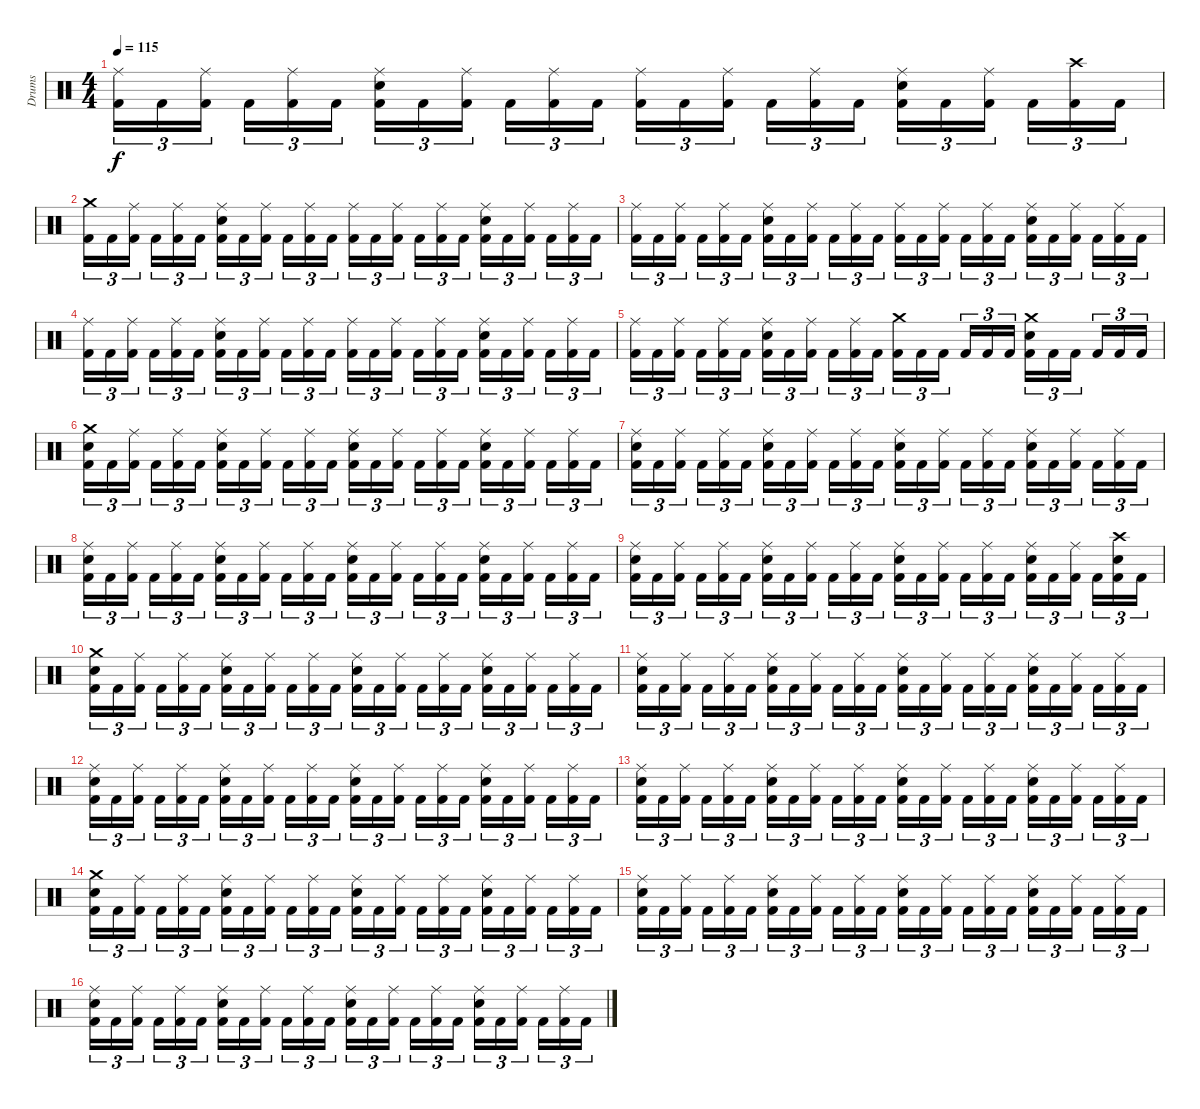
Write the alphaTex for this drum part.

\track ("Drums" "Drums") {instrument percussion}
\staff {score}
\articulation defaults
\ts (4 4)
\tempo 115
\clef neutral
\ks c
("Kick (hit) 2" "Ride (middle)").16{tu (3 2) dy f} "Kick (hit) 2".16{tu (3 2)} ("Kick (hit) 2" "Ride (middle)").16{tu (3 2)} "Kick (hit) 2".16{tu (3 2)} ("Kick (hit) 2" "Ride (middle)").16{tu (3 2)} "Kick (hit) 2".16{tu (3 2)} ("Kick (hit) 2" "Electric Snare (hit)" "Ride (middle)").16{tu (3 2)} "Kick (hit) 2".16{tu (3 2)} ("Kick (hit) 2" "Ride (middle)").16{tu (3 2)} "Kick (hit) 2".16{tu (3 2)} ("Kick (hit) 2" "Ride (middle)").16{tu (3 2)} "Kick (hit) 2".16{tu (3 2)} ("Kick (hit) 2" "Ride (middle)").16{tu (3 2)} "Kick (hit) 2".16{tu (3 2)} ("Kick (hit) 2" "Ride (middle)").16{tu (3 2)} "Kick (hit) 2".16{tu (3 2)} ("Kick (hit) 2" "Ride (middle)").16{tu (3 2)} "Kick (hit) 2".16{tu (3 2)} ("Kick (hit) 2" "Electric Snare (hit)" "Ride (middle)").16{tu (3 2)} "Kick (hit) 2".16{tu (3 2)} ("Kick (hit) 2" "Ride (middle)").16{tu (3 2)} "Kick (hit) 2".16{tu (3 2)} ("Kick (hit) 2" "Crash high (hit)").16{tu (3 2)} "Kick (hit) 2".16{tu (3 2)} |
("Kick (hit) 2" "Crash medium (hit)").16{tu (3 2) volume 14} "Kick (hit) 2".16{tu (3 2)} ("Kick (hit) 2" "Ride (middle)").16{tu (3 2)} "Kick (hit) 2".16{tu (3 2)} ("Kick (hit) 2" "Ride (middle)").16{tu (3 2)} "Kick (hit) 2".16{tu (3 2)} ("Kick (hit) 2" "Electric Snare (hit)" "Ride (middle)").16{tu (3 2)} "Kick (hit) 2".16{tu (3 2)} ("Kick (hit) 2" "Ride (middle)").16{tu (3 2)} "Kick (hit) 2".16{tu (3 2)} ("Kick (hit) 2" "Ride (middle)").16{tu (3 2)} "Kick (hit) 2".16{tu (3 2)} ("Kick (hit) 2" "Ride (middle)").16{tu (3 2)} "Kick (hit) 2".16{tu (3 2)} ("Kick (hit) 2" "Ride (middle)").16{tu (3 2)} "Kick (hit) 2".16{tu (3 2)} ("Kick (hit) 2" "Ride (middle)").16{tu (3 2)} "Kick (hit) 2".16{tu (3 2)} ("Kick (hit) 2" "Electric Snare (hit)" "Ride (middle)").16{tu (3 2)} "Kick (hit) 2".16{tu (3 2)} ("Kick (hit) 2" "Ride (middle)").16{tu (3 2)} "Kick (hit) 2".16{tu (3 2)} ("Kick (hit) 2" "Ride (middle)").16{tu (3 2)} "Kick (hit) 2".16{tu (3 2)} |
("Kick (hit) 2" "Ride (middle)").16{tu (3 2)} "Kick (hit) 2".16{tu (3 2)} ("Kick (hit) 2" "Ride (middle)").16{tu (3 2)} "Kick (hit) 2".16{tu (3 2)} ("Kick (hit) 2" "Ride (middle)").16{tu (3 2)} "Kick (hit) 2".16{tu (3 2)} ("Kick (hit) 2" "Electric Snare (hit)" "Ride (middle)").16{tu (3 2)} "Kick (hit) 2".16{tu (3 2)} ("Kick (hit) 2" "Ride (middle)").16{tu (3 2)} "Kick (hit) 2".16{tu (3 2)} ("Kick (hit) 2" "Ride (middle)").16{tu (3 2)} "Kick (hit) 2".16{tu (3 2)} ("Kick (hit) 2" "Ride (middle)").16{tu (3 2)} "Kick (hit) 2".16{tu (3 2)} ("Kick (hit) 2" "Ride (middle)").16{tu (3 2)} "Kick (hit) 2".16{tu (3 2)} ("Kick (hit) 2" "Ride (middle)").16{tu (3 2)} "Kick (hit) 2".16{tu (3 2)} ("Kick (hit) 2" "Electric Snare (hit)" "Ride (middle)").16{tu (3 2)} "Kick (hit) 2".16{tu (3 2)} ("Kick (hit) 2" "Ride (middle)").16{tu (3 2)} "Kick (hit) 2".16{tu (3 2)} ("Kick (hit) 2" "Ride (middle)").16{tu (3 2)} "Kick (hit) 2".16{tu (3 2)} |
("Kick (hit) 2" "Ride (middle)").16{tu (3 2) volume 12} "Kick (hit) 2".16{tu (3 2)} ("Kick (hit) 2" "Ride (middle)").16{tu (3 2)} "Kick (hit) 2".16{tu (3 2)} ("Kick (hit) 2" "Ride (middle)").16{tu (3 2)} "Kick (hit) 2".16{tu (3 2)} ("Kick (hit) 2" "Electric Snare (hit)" "Ride (middle)").16{tu (3 2)} "Kick (hit) 2".16{tu (3 2)} ("Kick (hit) 2" "Ride (middle)").16{tu (3 2)} "Kick (hit) 2".16{tu (3 2)} ("Kick (hit) 2" "Ride (middle)").16{tu (3 2)} "Kick (hit) 2".16{tu (3 2)} ("Kick (hit) 2" "Ride (middle)").16{tu (3 2)} "Kick (hit) 2".16{tu (3 2)} ("Kick (hit) 2" "Ride (middle)").16{tu (3 2)} "Kick (hit) 2".16{tu (3 2)} ("Kick (hit) 2" "Ride (middle)").16{tu (3 2)} "Kick (hit) 2".16{tu (3 2)} ("Kick (hit) 2" "Electric Snare (hit)" "Ride (middle)").16{tu (3 2)} "Kick (hit) 2".16{tu (3 2)} ("Kick (hit) 2" "Ride (middle)").16{tu (3 2)} "Kick (hit) 2".16{tu (3 2)} ("Kick (hit) 2" "Ride (middle)").16{tu (3 2)} "Kick (hit) 2".16{tu (3 2)} |
("Kick (hit) 2" "Ride (middle)").16{tu (3 2)} "Kick (hit) 2".16{tu (3 2)} ("Kick (hit) 2" "Ride (middle)").16{tu (3 2)} "Kick (hit) 2".16{tu (3 2)} ("Kick (hit) 2" "Ride (middle)").16{tu (3 2)} "Kick (hit) 2".16{tu (3 2)} ("Kick (hit) 2" "Electric Snare (hit)" "Ride (middle)").16{tu (3 2)} "Kick (hit) 2".16{tu (3 2)} ("Kick (hit) 2" "Ride (middle)").16{tu (3 2)} "Kick (hit) 2".16{tu (3 2)} ("Kick (hit) 2" "Ride (middle)").16{tu (3 2)} "Kick (hit) 2".16{tu (3 2)} ("Kick (hit) 2" "Crash medium (hit)").16{tu (3 2)} "Kick (hit) 2".16{tu (3 2)} "Kick (hit) 2".16{tu (3 2)} "Kick (hit) 2".16{tu (3 2)} "Kick (hit) 2".16{tu (3 2)} "Kick (hit) 2".16{tu (3 2)} ("Kick (hit) 2" "Electric Snare (hit)" "Crash medium (hit)").16{tu (3 2)} "Kick (hit) 2".16{tu (3 2)} "Kick (hit) 2".16{tu (3 2)} "Kick (hit) 2".16{tu (3 2)} "Kick (hit) 2".16{tu (3 2)} "Kick (hit) 2".16{tu (3 2)} |
("Kick (hit) 2" "Electric Snare (hit)" "Crash medium (hit)").16{tu (3 2) volume 10} "Kick (hit) 2".16{tu (3 2)} ("Kick (hit) 2" "Ride (middle)").16{tu (3 2)} "Kick (hit) 2".16{tu (3 2)} ("Kick (hit) 2" "Ride (middle)").16{tu (3 2)} "Kick (hit) 2".16{tu (3 2)} ("Kick (hit) 2" "Electric Snare (hit)" "Ride (middle)").16{tu (3 2)} "Kick (hit) 2".16{tu (3 2)} ("Kick (hit) 2" "Ride (middle)").16{tu (3 2)} "Kick (hit) 2".16{tu (3 2)} ("Kick (hit) 2" "Ride (middle)").16{tu (3 2)} "Kick (hit) 2".16{tu (3 2)} ("Kick (hit) 2" "Electric Snare (hit)" "Ride (middle)").16{tu (3 2)} "Kick (hit) 2".16{tu (3 2)} ("Kick (hit) 2" "Ride (middle)").16{tu (3 2)} "Kick (hit) 2".16{tu (3 2)} ("Kick (hit) 2" "Ride (middle)").16{tu (3 2)} "Kick (hit) 2".16{tu (3 2)} ("Kick (hit) 2" "Electric Snare (hit)" "Ride (middle)").16{tu (3 2)} "Kick (hit) 2".16{tu (3 2)} ("Kick (hit) 2" "Ride (middle)").16{tu (3 2)} "Kick (hit) 2".16{tu (3 2)} ("Kick (hit) 2" "Ride (middle)").16{tu (3 2)} "Kick (hit) 2".16{tu (3 2)} |
("Kick (hit) 2" "Electric Snare (hit)" "Ride (middle)").16{tu (3 2)} "Kick (hit) 2".16{tu (3 2)} ("Kick (hit) 2" "Ride (middle)").16{tu (3 2)} "Kick (hit) 2".16{tu (3 2)} ("Kick (hit) 2" "Ride (middle)").16{tu (3 2)} "Kick (hit) 2".16{tu (3 2)} ("Kick (hit) 2" "Electric Snare (hit)" "Ride (middle)").16{tu (3 2)} "Kick (hit) 2".16{tu (3 2)} ("Kick (hit) 2" "Ride (middle)").16{tu (3 2)} "Kick (hit) 2".16{tu (3 2)} ("Kick (hit) 2" "Ride (middle)").16{tu (3 2)} "Kick (hit) 2".16{tu (3 2)} ("Kick (hit) 2" "Electric Snare (hit)" "Ride (middle)").16{tu (3 2)} "Kick (hit) 2".16{tu (3 2)} ("Kick (hit) 2" "Ride (middle)").16{tu (3 2)} "Kick (hit) 2".16{tu (3 2)} ("Kick (hit) 2" "Ride (middle)").16{tu (3 2)} "Kick (hit) 2".16{tu (3 2)} ("Kick (hit) 2" "Electric Snare (hit)" "Ride (middle)").16{tu (3 2)} "Kick (hit) 2".16{tu (3 2)} ("Kick (hit) 2" "Ride (middle)").16{tu (3 2)} "Kick (hit) 2".16{tu (3 2)} ("Kick (hit) 2" "Ride (middle)").16{tu (3 2)} "Kick (hit) 2".16{tu (3 2)} |
("Kick (hit) 2" "Electric Snare (hit)" "Ride (middle)").16{tu (3 2) volume 8} "Kick (hit) 2".16{tu (3 2)} ("Kick (hit) 2" "Ride (middle)").16{tu (3 2)} "Kick (hit) 2".16{tu (3 2)} ("Kick (hit) 2" "Ride (middle)").16{tu (3 2)} "Kick (hit) 2".16{tu (3 2)} ("Kick (hit) 2" "Electric Snare (hit)" "Ride (middle)").16{tu (3 2)} "Kick (hit) 2".16{tu (3 2)} ("Kick (hit) 2" "Ride (middle)").16{tu (3 2)} "Kick (hit) 2".16{tu (3 2)} ("Kick (hit) 2" "Ride (middle)").16{tu (3 2)} "Kick (hit) 2".16{tu (3 2)} ("Kick (hit) 2" "Electric Snare (hit)" "Ride (middle)").16{tu (3 2)} "Kick (hit) 2".16{tu (3 2)} ("Kick (hit) 2" "Ride (middle)").16{tu (3 2)} "Kick (hit) 2".16{tu (3 2)} ("Kick (hit) 2" "Ride (middle)").16{tu (3 2)} "Kick (hit) 2".16{tu (3 2)} ("Kick (hit) 2" "Electric Snare (hit)" "Ride (middle)").16{tu (3 2)} "Kick (hit) 2".16{tu (3 2)} ("Kick (hit) 2" "Ride (middle)").16{tu (3 2)} "Kick (hit) 2".16{tu (3 2)} ("Kick (hit) 2" "Ride (middle)").16{tu (3 2)} "Kick (hit) 2".16{tu (3 2)} |
("Kick (hit) 2" "Electric Snare (hit)" "Ride (middle)").16{tu (3 2)} "Kick (hit) 2".16{tu (3 2)} ("Kick (hit) 2" "Ride (middle)").16{tu (3 2)} "Kick (hit) 2".16{tu (3 2)} ("Kick (hit) 2" "Ride (middle)").16{tu (3 2)} "Kick (hit) 2".16{tu (3 2)} ("Kick (hit) 2" "Electric Snare (hit)" "Ride (middle)").16{tu (3 2)} "Kick (hit) 2".16{tu (3 2)} ("Kick (hit) 2" "Ride (middle)").16{tu (3 2)} "Kick (hit) 2".16{tu (3 2)} ("Kick (hit) 2" "Ride (middle)").16{tu (3 2)} "Kick (hit) 2".16{tu (3 2)} ("Kick (hit) 2" "Electric Snare (hit)" "Ride (middle)").16{tu (3 2)} "Kick (hit) 2".16{tu (3 2)} ("Kick (hit) 2" "Ride (middle)").16{tu (3 2)} "Kick (hit) 2".16{tu (3 2)} ("Kick (hit) 2" "Ride (middle)").16{tu (3 2)} "Kick (hit) 2".16{tu (3 2)} ("Kick (hit) 2" "Electric Snare (hit)" "Ride (middle)").16{tu (3 2)} "Kick (hit) 2".16{tu (3 2)} ("Kick (hit) 2" "Ride (middle)").16{tu (3 2)} "Kick (hit) 2".16{tu (3 2)} ("Kick (hit) 2" "Electric Snare (hit)" "Crash high (hit)").16{tu (3 2)} "Kick (hit) 2".16{tu (3 2)} |
("Kick (hit) 2" "Electric Snare (hit)" "Crash medium (hit)").16{tu (3 2) volume 6} "Kick (hit) 2".16{tu (3 2)} ("Kick (hit) 2" "Ride (middle)").16{tu (3 2)} "Kick (hit) 2".16{tu (3 2)} ("Kick (hit) 2" "Ride (middle)").16{tu (3 2)} "Kick (hit) 2".16{tu (3 2)} ("Kick (hit) 2" "Electric Snare (hit)" "Ride (middle)").16{tu (3 2)} "Kick (hit) 2".16{tu (3 2)} ("Kick (hit) 2" "Ride (middle)").16{tu (3 2)} "Kick (hit) 2".16{tu (3 2)} ("Kick (hit) 2" "Ride (middle)").16{tu (3 2)} "Kick (hit) 2".16{tu (3 2)} ("Kick (hit) 2" "Electric Snare (hit)" "Ride (middle)").16{tu (3 2)} "Kick (hit) 2".16{tu (3 2)} ("Kick (hit) 2" "Ride (middle)").16{tu (3 2)} "Kick (hit) 2".16{tu (3 2)} ("Kick (hit) 2" "Ride (middle)").16{tu (3 2)} "Kick (hit) 2".16{tu (3 2)} ("Kick (hit) 2" "Electric Snare (hit)" "Ride (middle)").16{tu (3 2)} "Kick (hit) 2".16{tu (3 2)} ("Kick (hit) 2" "Ride (middle)").16{tu (3 2)} "Kick (hit) 2".16{tu (3 2)} ("Kick (hit) 2" "Ride (middle)").16{tu (3 2)} "Kick (hit) 2".16{tu (3 2)} |
("Kick (hit) 2" "Electric Snare (hit)" "Ride (middle)").16{tu (3 2)} "Kick (hit) 2".16{tu (3 2)} ("Kick (hit) 2" "Ride (middle)").16{tu (3 2)} "Kick (hit) 2".16{tu (3 2)} ("Kick (hit) 2" "Ride (middle)").16{tu (3 2)} "Kick (hit) 2".16{tu (3 2)} ("Kick (hit) 2" "Electric Snare (hit)" "Ride (middle)").16{tu (3 2)} "Kick (hit) 2".16{tu (3 2)} ("Kick (hit) 2" "Ride (middle)").16{tu (3 2)} "Kick (hit) 2".16{tu (3 2)} ("Kick (hit) 2" "Ride (middle)").16{tu (3 2)} "Kick (hit) 2".16{tu (3 2)} ("Kick (hit) 2" "Electric Snare (hit)" "Ride (middle)").16{tu (3 2)} "Kick (hit) 2".16{tu (3 2)} ("Kick (hit) 2" "Ride (middle)").16{tu (3 2)} "Kick (hit) 2".16{tu (3 2)} ("Kick (hit) 2" "Ride (middle)").16{tu (3 2)} "Kick (hit) 2".16{tu (3 2)} ("Kick (hit) 2" "Electric Snare (hit)" "Ride (middle)").16{tu (3 2)} "Kick (hit) 2".16{tu (3 2)} ("Kick (hit) 2" "Ride (middle)").16{tu (3 2)} "Kick (hit) 2".16{tu (3 2)} ("Kick (hit) 2" "Ride (middle)").16{tu (3 2)} "Kick (hit) 2".16{tu (3 2)} |
("Kick (hit) 2" "Electric Snare (hit)" "Ride (middle)").16{tu (3 2) volume 4} "Kick (hit) 2".16{tu (3 2)} ("Kick (hit) 2" "Ride (middle)").16{tu (3 2)} "Kick (hit) 2".16{tu (3 2)} ("Kick (hit) 2" "Ride (middle)").16{tu (3 2)} "Kick (hit) 2".16{tu (3 2)} ("Kick (hit) 2" "Electric Snare (hit)" "Ride (middle)").16{tu (3 2)} "Kick (hit) 2".16{tu (3 2)} ("Kick (hit) 2" "Ride (middle)").16{tu (3 2)} "Kick (hit) 2".16{tu (3 2)} ("Kick (hit) 2" "Ride (middle)").16{tu (3 2)} "Kick (hit) 2".16{tu (3 2)} ("Kick (hit) 2" "Electric Snare (hit)" "Ride (middle)").16{tu (3 2)} "Kick (hit) 2".16{tu (3 2)} ("Kick (hit) 2" "Ride (middle)").16{tu (3 2)} "Kick (hit) 2".16{tu (3 2)} ("Kick (hit) 2" "Ride (middle)").16{tu (3 2)} "Kick (hit) 2".16{tu (3 2)} ("Kick (hit) 2" "Electric Snare (hit)" "Ride (middle)").16{tu (3 2)} "Kick (hit) 2".16{tu (3 2)} ("Kick (hit) 2" "Ride (middle)").16{tu (3 2)} "Kick (hit) 2".16{tu (3 2)} ("Kick (hit) 2" "Ride (middle)").16{tu (3 2)} "Kick (hit) 2".16{tu (3 2)} |
("Kick (hit) 2" "Electric Snare (hit)" "Ride (middle)").16{tu (3 2)} "Kick (hit) 2".16{tu (3 2)} ("Kick (hit) 2" "Ride (middle)").16{tu (3 2)} "Kick (hit) 2".16{tu (3 2)} ("Kick (hit) 2" "Ride (middle)").16{tu (3 2)} "Kick (hit) 2".16{tu (3 2)} ("Kick (hit) 2" "Electric Snare (hit)" "Ride (middle)").16{tu (3 2)} "Kick (hit) 2".16{tu (3 2)} ("Kick (hit) 2" "Ride (middle)").16{tu (3 2)} "Kick (hit) 2".16{tu (3 2)} ("Kick (hit) 2" "Ride (middle)").16{tu (3 2)} "Kick (hit) 2".16{tu (3 2)} ("Kick (hit) 2" "Electric Snare (hit)" "Ride (middle)").16{tu (3 2)} "Kick (hit) 2".16{tu (3 2)} ("Kick (hit) 2" "Ride (middle)").16{tu (3 2)} "Kick (hit) 2".16{tu (3 2)} ("Kick (hit) 2" "Ride (middle)").16{tu (3 2)} "Kick (hit) 2".16{tu (3 2)} ("Kick (hit) 2" "Electric Snare (hit)" "Ride (middle)").16{tu (3 2)} "Kick (hit) 2".16{tu (3 2)} ("Kick (hit) 2" "Ride (middle)").16{tu (3 2)} "Kick (hit) 2".16{tu (3 2)} ("Kick (hit) 2" "Ride (middle)").16{tu (3 2)} "Kick (hit) 2".16{tu (3 2)} |
("Kick (hit) 2" "Electric Snare (hit)" "Crash medium (hit)").16{tu (3 2) volume 2} "Kick (hit) 2".16{tu (3 2)} ("Kick (hit) 2" "Ride (middle)").16{tu (3 2)} "Kick (hit) 2".16{tu (3 2)} ("Kick (hit) 2" "Ride (middle)").16{tu (3 2)} "Kick (hit) 2".16{tu (3 2)} ("Kick (hit) 2" "Electric Snare (hit)" "Ride (middle)").16{tu (3 2)} "Kick (hit) 2".16{tu (3 2)} ("Kick (hit) 2" "Ride (middle)").16{tu (3 2)} "Kick (hit) 2".16{tu (3 2)} ("Kick (hit) 2" "Ride (middle)").16{tu (3 2)} "Kick (hit) 2".16{tu (3 2)} ("Kick (hit) 2" "Electric Snare (hit)" "Ride (middle)").16{tu (3 2)} "Kick (hit) 2".16{tu (3 2)} ("Kick (hit) 2" "Ride (middle)").16{tu (3 2)} "Kick (hit) 2".16{tu (3 2)} ("Kick (hit) 2" "Ride (middle)").16{tu (3 2)} "Kick (hit) 2".16{tu (3 2)} ("Kick (hit) 2" "Electric Snare (hit)" "Ride (middle)").16{tu (3 2)} "Kick (hit) 2".16{tu (3 2)} ("Kick (hit) 2" "Ride (middle)").16{tu (3 2)} "Kick (hit) 2".16{tu (3 2)} ("Kick (hit) 2" "Ride (middle)").16{tu (3 2)} "Kick (hit) 2".16{tu (3 2)} |
("Kick (hit) 2" "Electric Snare (hit)" "Ride (middle)").16{tu (3 2)} "Kick (hit) 2".16{tu (3 2)} ("Kick (hit) 2" "Ride (middle)").16{tu (3 2)} "Kick (hit) 2".16{tu (3 2)} ("Kick (hit) 2" "Ride (middle)").16{tu (3 2)} "Kick (hit) 2".16{tu (3 2)} ("Kick (hit) 2" "Electric Snare (hit)" "Ride (middle)").16{tu (3 2)} "Kick (hit) 2".16{tu (3 2)} ("Kick (hit) 2" "Ride (middle)").16{tu (3 2)} "Kick (hit) 2".16{tu (3 2)} ("Kick (hit) 2" "Ride (middle)").16{tu (3 2)} "Kick (hit) 2".16{tu (3 2)} ("Kick (hit) 2" "Electric Snare (hit)" "Ride (middle)").16{tu (3 2)} "Kick (hit) 2".16{tu (3 2)} ("Kick (hit) 2" "Ride (middle)").16{tu (3 2)} "Kick (hit) 2".16{tu (3 2)} ("Kick (hit) 2" "Ride (middle)").16{tu (3 2)} "Kick (hit) 2".16{tu (3 2)} ("Kick (hit) 2" "Electric Snare (hit)" "Ride (middle)").16{tu (3 2)} "Kick (hit) 2".16{tu (3 2)} ("Kick (hit) 2" "Ride (middle)").16{tu (3 2)} "Kick (hit) 2".16{tu (3 2)} ("Kick (hit) 2" "Ride (middle)").16{tu (3 2)} "Kick (hit) 2".16{tu (3 2)} |
("Kick (hit) 2" "Electric Snare (hit)" "Ride (middle)").16{tu (3 2) volume 0} "Kick (hit) 2".16{tu (3 2)} ("Kick (hit) 2" "Ride (middle)").16{tu (3 2)} "Kick (hit) 2".16{tu (3 2)} ("Kick (hit) 2" "Ride (middle)").16{tu (3 2)} "Kick (hit) 2".16{tu (3 2)} ("Kick (hit) 2" "Electric Snare (hit)" "Ride (middle)").16{tu (3 2)} "Kick (hit) 2".16{tu (3 2)} ("Kick (hit) 2" "Ride (middle)").16{tu (3 2)} "Kick (hit) 2".16{tu (3 2)} ("Kick (hit) 2" "Ride (middle)").16{tu (3 2)} "Kick (hit) 2".16{tu (3 2)} ("Kick (hit) 2" "Electric Snare (hit)" "Ride (middle)").16{tu (3 2)} "Kick (hit) 2".16{tu (3 2)} ("Kick (hit) 2" "Ride (middle)").16{tu (3 2)} "Kick (hit) 2".16{tu (3 2)} ("Kick (hit) 2" "Ride (middle)").16{tu (3 2)} "Kick (hit) 2".16{tu (3 2)} ("Kick (hit) 2" "Electric Snare (hit)" "Ride (middle)").16{tu (3 2)} "Kick (hit) 2".16{tu (3 2)} ("Kick (hit) 2" "Ride (middle)").16{tu (3 2)} "Kick (hit) 2".16{tu (3 2)} ("Kick (hit) 2" "Ride (middle)").16{tu (3 2)} "Kick (hit) 2".16{tu (3 2)}
